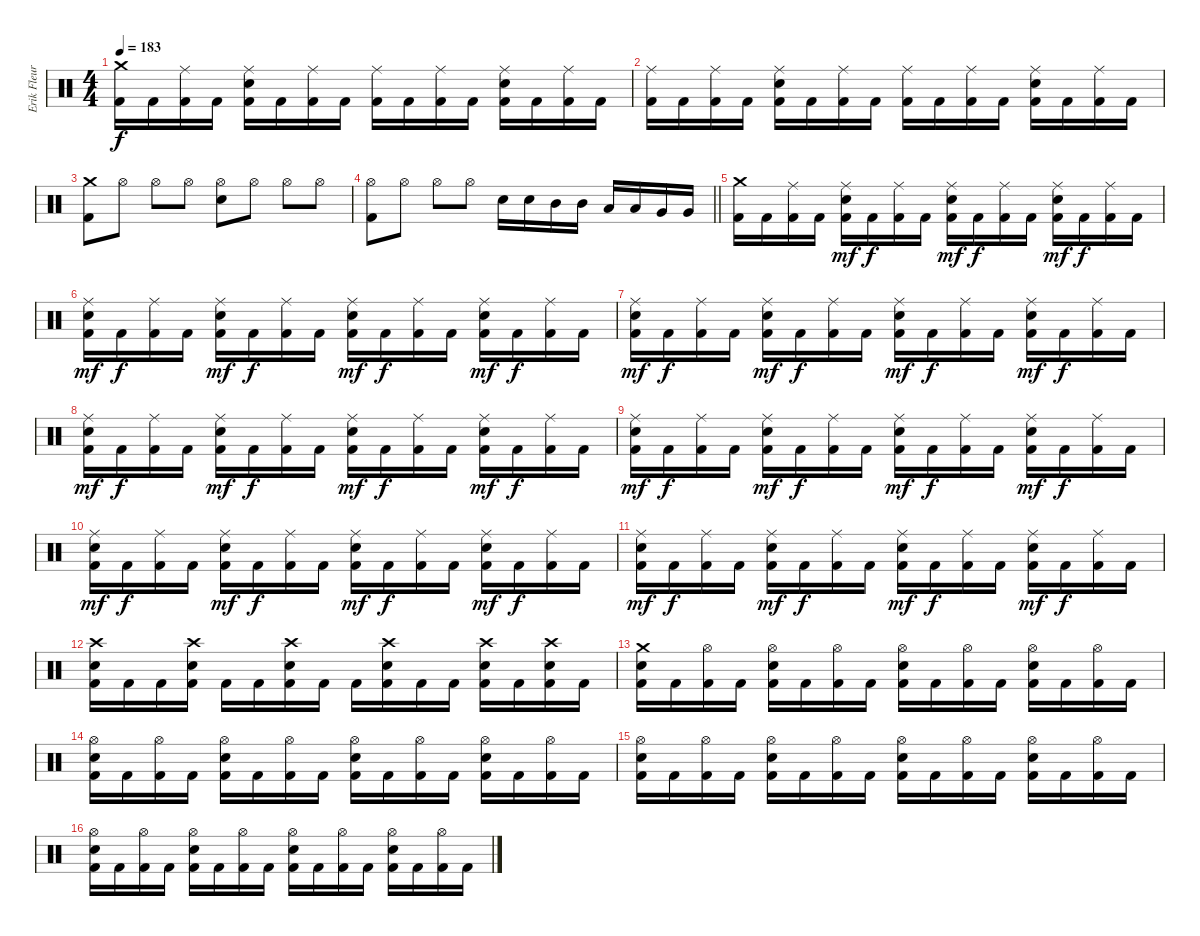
\track ("Erik Fleuren" "Erik Fleur") {instrument percussion}
\staff {score}
\articulation defaults
\ts (4 4)
\tempo 183
\clef neutral
\ks c
("Crash medium (hit)" "Kick (hit) 2").16{dy f} "Kick (hit) 2".16 ("Ride (middle)" "Kick (hit) 2").16 "Kick (hit) 2".16 ("Ride (middle)" "Electric Snare (hit)" "Kick (hit) 2").16 "Kick (hit) 2".16 ("Ride (middle)" "Kick (hit) 2").16 "Kick (hit) 2".16 ("Ride (middle)" "Kick (hit) 2").16 "Kick (hit) 2".16 ("Ride (middle)" "Kick (hit) 2").16 "Kick (hit) 2".16 ("Ride (middle)" "Electric Snare (hit)" "Kick (hit) 2").16 "Kick (hit) 2".16 ("Ride (middle)" "Kick (hit) 2").16 "Kick (hit) 2".16 |
("Ride (middle)" "Kick (hit) 2").16 "Kick (hit) 2".16 ("Ride (middle)" "Kick (hit) 2").16 "Kick (hit) 2".16 ("Ride (middle)" "Electric Snare (hit)" "Kick (hit) 2").16 "Kick (hit) 2".16 ("Ride (middle)" "Kick (hit) 2").16 "Kick (hit) 2".16 ("Ride (middle)" "Kick (hit) 2").16 "Kick (hit) 2".16 ("Ride (middle)" "Kick (hit) 2").16 "Kick (hit) 2".16 ("Ride (middle)" "Electric Snare (hit)" "Kick (hit) 2").16 "Kick (hit) 2".16 ("Ride (middle)" "Kick (hit) 2").16 "Kick (hit) 2".16 |
("Crash medium (hit)" "Kick (hit) 2").8 "Hi-Hat (open)".8 "Hi-Hat (open)".8 "Hi-Hat (open)".8 ("Hi-Hat (open)" "Electric Snare (hit)").8 "Hi-Hat (open)".8 "Hi-Hat (open)".8 "Hi-Hat (open)".8 |
\barLineRight lightlight
("Hi-Hat (open)" "Kick (hit) 2").8 "Hi-Hat (open)".8 "Hi-Hat (open)".8 "Hi-Hat (open)".8 "Electric Snare (hit)".16 "Electric Snare (hit)".16 "Mid Tom (hit)".16 "Mid Tom (hit)".16 "Low Tom (hit)".16 "Low Tom (hit)".16 "Very Low Tom (hit)".16 "Very Low Tom (hit)".16 |
("Crash medium (hit)" "Kick (hit) 2").16 "Kick (hit) 2".16 ("Ride (middle)" "Kick (hit) 2").16 "Kick (hit) 2".16 ("Ride (middle)" "Electric Snare (hit)" "Kick (hit) 2").16{dy mf} "Kick (hit) 2".16{dy f} ("Ride (middle)" "Kick (hit) 2").16 "Kick (hit) 2".16 ("Ride (middle)" "Electric Snare (hit)" "Kick (hit) 2").16{dy mf} "Kick (hit) 2".16{dy f} ("Ride (middle)" "Kick (hit) 2").16 "Kick (hit) 2".16 ("Ride (middle)" "Electric Snare (hit)" "Kick (hit) 2").16{dy mf} "Kick (hit) 2".16{dy f} ("Ride (middle)" "Kick (hit) 2").16 "Kick (hit) 2".16 |
("Ride (middle)" "Electric Snare (hit)" "Kick (hit) 2").16{dy mf} "Kick (hit) 2".16{dy f} ("Ride (middle)" "Kick (hit) 2").16 "Kick (hit) 2".16 ("Ride (middle)" "Electric Snare (hit)" "Kick (hit) 2").16{dy mf} "Kick (hit) 2".16{dy f} ("Ride (middle)" "Kick (hit) 2").16 "Kick (hit) 2".16 ("Ride (middle)" "Electric Snare (hit)" "Kick (hit) 2").16{dy mf} "Kick (hit) 2".16{dy f} ("Ride (middle)" "Kick (hit) 2").16 "Kick (hit) 2".16 ("Ride (middle)" "Electric Snare (hit)" "Kick (hit) 2").16{dy mf} "Kick (hit) 2".16{dy f} ("Ride (middle)" "Kick (hit) 2").16 "Kick (hit) 2".16 |
("Ride (middle)" "Electric Snare (hit)" "Kick (hit) 2").16{dy mf} "Kick (hit) 2".16{dy f} ("Ride (middle)" "Kick (hit) 2").16 "Kick (hit) 2".16 ("Ride (middle)" "Electric Snare (hit)" "Kick (hit) 2").16{dy mf} "Kick (hit) 2".16{dy f} ("Ride (middle)" "Kick (hit) 2").16 "Kick (hit) 2".16 ("Ride (middle)" "Electric Snare (hit)" "Kick (hit) 2").16{dy mf} "Kick (hit) 2".16{dy f} ("Ride (middle)" "Kick (hit) 2").16 "Kick (hit) 2".16 ("Ride (middle)" "Electric Snare (hit)" "Kick (hit) 2").16{dy mf} "Kick (hit) 2".16{dy f} ("Ride (middle)" "Kick (hit) 2").16 "Kick (hit) 2".16 |
("Ride (middle)" "Electric Snare (hit)" "Kick (hit) 2").16{dy mf} "Kick (hit) 2".16{dy f} ("Ride (middle)" "Kick (hit) 2").16 "Kick (hit) 2".16 ("Ride (middle)" "Electric Snare (hit)" "Kick (hit) 2").16{dy mf} "Kick (hit) 2".16{dy f} ("Ride (middle)" "Kick (hit) 2").16 "Kick (hit) 2".16 ("Ride (middle)" "Electric Snare (hit)" "Kick (hit) 2").16{dy mf} "Kick (hit) 2".16{dy f} ("Ride (middle)" "Kick (hit) 2").16 "Kick (hit) 2".16 ("Ride (middle)" "Electric Snare (hit)" "Kick (hit) 2").16{dy mf} "Kick (hit) 2".16{dy f} ("Ride (middle)" "Kick (hit) 2").16 "Kick (hit) 2".16 |
("Ride (middle)" "Electric Snare (hit)" "Kick (hit) 2").16{dy mf} "Kick (hit) 2".16{dy f} ("Ride (middle)" "Kick (hit) 2").16 "Kick (hit) 2".16 ("Ride (middle)" "Electric Snare (hit)" "Kick (hit) 2").16{dy mf} "Kick (hit) 2".16{dy f} ("Ride (middle)" "Kick (hit) 2").16 "Kick (hit) 2".16 ("Ride (middle)" "Electric Snare (hit)" "Kick (hit) 2").16{dy mf} "Kick (hit) 2".16{dy f} ("Ride (middle)" "Kick (hit) 2").16 "Kick (hit) 2".16 ("Ride (middle)" "Electric Snare (hit)" "Kick (hit) 2").16{dy mf} "Kick (hit) 2".16{dy f} ("Ride (middle)" "Kick (hit) 2").16 "Kick (hit) 2".16 |
("Ride (middle)" "Electric Snare (hit)" "Kick (hit) 2").16{dy mf} "Kick (hit) 2".16{dy f} ("Ride (middle)" "Kick (hit) 2").16 "Kick (hit) 2".16 ("Ride (middle)" "Electric Snare (hit)" "Kick (hit) 2").16{dy mf} "Kick (hit) 2".16{dy f} ("Ride (middle)" "Kick (hit) 2").16 "Kick (hit) 2".16 ("Ride (middle)" "Electric Snare (hit)" "Kick (hit) 2").16{dy mf} "Kick (hit) 2".16{dy f} ("Ride (middle)" "Kick (hit) 2").16 "Kick (hit) 2".16 ("Ride (middle)" "Electric Snare (hit)" "Kick (hit) 2").16{dy mf} "Kick (hit) 2".16{dy f} ("Ride (middle)" "Kick (hit) 2").16 "Kick (hit) 2".16 |
("Ride (middle)" "Electric Snare (hit)" "Kick (hit) 2").16{dy mf} "Kick (hit) 2".16{dy f} ("Ride (middle)" "Kick (hit) 2").16 "Kick (hit) 2".16 ("Ride (middle)" "Electric Snare (hit)" "Kick (hit) 2").16{dy mf} "Kick (hit) 2".16{dy f} ("Ride (middle)" "Kick (hit) 2").16 "Kick (hit) 2".16 ("Ride (middle)" "Electric Snare (hit)" "Kick (hit) 2").16{dy mf} "Kick (hit) 2".16{dy f} ("Ride (middle)" "Kick (hit) 2").16 "Kick (hit) 2".16 ("Ride (middle)" "Electric Snare (hit)" "Kick (hit) 2").16{dy mf} "Kick (hit) 2".16{dy f} ("Ride (middle)" "Kick (hit) 2").16 "Kick (hit) 2".16 |
("Crash high (hit)" "Electric Snare (hit)" "Kick (hit) 2").16 "Kick (hit) 2".16 "Kick (hit) 2".16 ("Crash high (hit)" "Electric Snare (hit)" "Kick (hit) 2").16 "Kick (hit) 2".16 "Kick (hit) 2".16 ("Crash high (hit)" "Electric Snare (hit)" "Kick (hit) 2").16 "Kick (hit) 2".16 "Kick (hit) 2".16 ("Crash high (hit)" "Electric Snare (hit)" "Kick (hit) 2").16 "Kick (hit) 2".16 "Kick (hit) 2".16 ("Crash high (hit)" "Electric Snare (hit)" "Kick (hit) 2").16 "Kick (hit) 2".16 ("Crash high (hit)" "Electric Snare (hit)" "Kick (hit) 2").16 "Kick (hit) 2".16 |
("Crash medium (hit)" "Electric Snare (hit)" "Kick (hit) 2").16 "Kick (hit) 2".16 ("Hi-Hat (open)" "Kick (hit) 2").16 "Kick (hit) 2".16 ("Hi-Hat (open)" "Electric Snare (hit)" "Kick (hit) 2").16 "Kick (hit) 2".16 ("Hi-Hat (open)" "Kick (hit) 2").16 "Kick (hit) 2".16 ("Hi-Hat (open)" "Electric Snare (hit)" "Kick (hit) 2").16 "Kick (hit) 2".16 ("Hi-Hat (open)" "Kick (hit) 2").16 "Kick (hit) 2".16 ("Hi-Hat (open)" "Electric Snare (hit)" "Kick (hit) 2").16 "Kick (hit) 2".16 ("Hi-Hat (open)" "Kick (hit) 2").16 "Kick (hit) 2".16 |
("Hi-Hat (open)" "Electric Snare (hit)" "Kick (hit) 2").16 "Kick (hit) 2".16 ("Hi-Hat (open)" "Kick (hit) 2").16 "Kick (hit) 2".16 ("Hi-Hat (open)" "Electric Snare (hit)" "Kick (hit) 2").16 "Kick (hit) 2".16 ("Hi-Hat (open)" "Kick (hit) 2").16 "Kick (hit) 2".16 ("Hi-Hat (open)" "Electric Snare (hit)" "Kick (hit) 2").16 "Kick (hit) 2".16 ("Hi-Hat (open)" "Kick (hit) 2").16 "Kick (hit) 2".16 ("Hi-Hat (open)" "Electric Snare (hit)" "Kick (hit) 2").16 "Kick (hit) 2".16 ("Hi-Hat (open)" "Kick (hit) 2").16 "Kick (hit) 2".16 |
("Hi-Hat (open)" "Electric Snare (hit)" "Kick (hit) 2").16 "Kick (hit) 2".16 ("Hi-Hat (open)" "Kick (hit) 2").16 "Kick (hit) 2".16 ("Hi-Hat (open)" "Electric Snare (hit)" "Kick (hit) 2").16 "Kick (hit) 2".16 ("Hi-Hat (open)" "Kick (hit) 2").16 "Kick (hit) 2".16 ("Hi-Hat (open)" "Electric Snare (hit)" "Kick (hit) 2").16 "Kick (hit) 2".16 ("Hi-Hat (open)" "Kick (hit) 2").16 "Kick (hit) 2".16 ("Hi-Hat (open)" "Electric Snare (hit)" "Kick (hit) 2").16 "Kick (hit) 2".16 ("Hi-Hat (open)" "Kick (hit) 2").16 "Kick (hit) 2".16 |
("Hi-Hat (open)" "Electric Snare (hit)" "Kick (hit) 2").16 "Kick (hit) 2".16 ("Hi-Hat (open)" "Kick (hit) 2").16 "Kick (hit) 2".16 ("Hi-Hat (open)" "Electric Snare (hit)" "Kick (hit) 2").16 "Kick (hit) 2".16 ("Hi-Hat (open)" "Kick (hit) 2").16 "Kick (hit) 2".16 ("Hi-Hat (open)" "Electric Snare (hit)" "Kick (hit) 2").16 "Kick (hit) 2".16 ("Hi-Hat (open)" "Kick (hit) 2").16 "Kick (hit) 2".16 ("Hi-Hat (open)" "Electric Snare (hit)" "Kick (hit) 2").16 "Kick (hit) 2".16 ("Hi-Hat (open)" "Kick (hit) 2").16 "Kick (hit) 2".16
